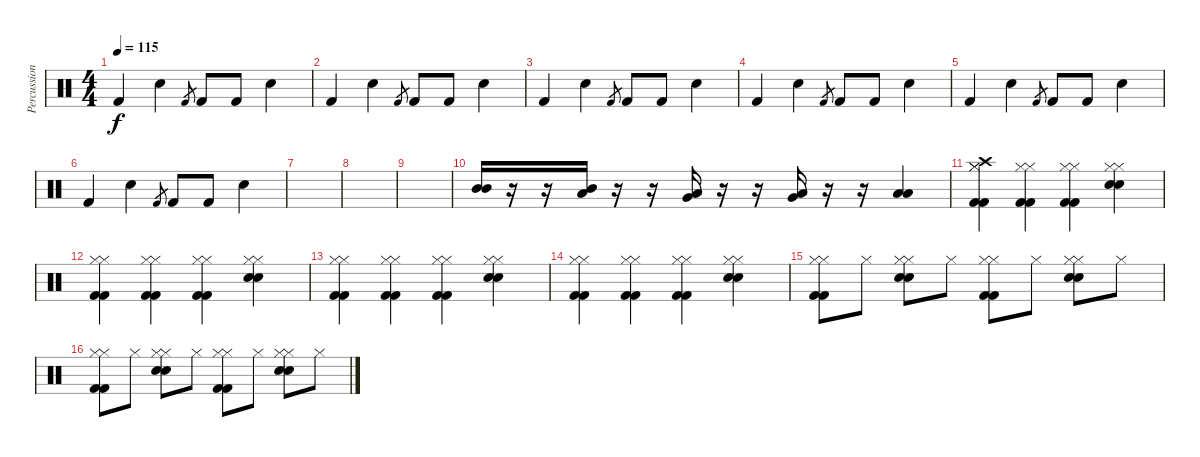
\track ("Percussion" "Percussion") {instrument percussion}
\staff {score}
\articulation defaults
\ts (4 4)
\tempo 115
\clef neutral
\ks c "Kick (hit) 2".4{dy f} "Hand Clap (hit)".4 "Kick (hit) 2".8{gr} "Kick (hit) 2".8 "Kick (hit) 2".8 "Hand Clap (hit)".4
|
"Kick (hit) 2".4 "Hand Clap (hit)".4 "Kick (hit) 2".8{gr} "Kick (hit) 2".8 "Kick (hit) 2".8 "Hand Clap (hit)".4 |
"Kick (hit) 2".4 "Hand Clap (hit)".4 "Kick (hit) 2".8{gr} "Kick (hit) 2".8 "Kick (hit) 2".8 "Hand Clap (hit)".4 |
"Kick (hit) 2".4 "Hand Clap (hit)".4 "Kick (hit) 2".8{gr} "Kick (hit) 2".8 "Kick (hit) 2".8 "Hand Clap (hit)".4 |
"Kick (hit) 2".4 "Hand Clap (hit)".4 "Kick (hit) 2".8{gr} "Kick (hit) 2".8 "Kick (hit) 2".8 "Hand Clap (hit)".4 |
"Kick (hit) 2".4 "Hand Clap (hit)".4 "Kick (hit) 2".8{gr} "Kick (hit) 2".8 "Kick (hit) 2".8 "Hand Clap (hit)".4 |
|
|
|
("Mid Tom (hit)" "Mid Tom (hit)").16 r.16 r.16 ("Mid Tom (hit)" "Low Tom (hit)").16 r.16 r.16 ("Low Tom (hit)" "Very Low Tom (hit)").16 r.16 r.16 ("Very Low Tom (hit)" "Low Floor Tom (hit)").16 r.16 r.16 ("Low Floor Tom (hit)" "Low Floor Tom (hit)").4 |
("Kick (hit) 2" "Kick (hit) 2" "Hi-Hat (closed)" "Hi-Hat (closed)" "Crash high (hit)").4 ("Kick (hit) 2" "Kick (hit) 2" "Hi-Hat (closed)" "Hi-Hat (closed)").4 ("Kick (hit) 2" "Kick (hit) 2" "Hi-Hat (closed)" "Hi-Hat (closed)").4 ("Electric Snare (hit)" "Electric Snare (hit)" "Hi-Hat (closed)" "Hi-Hat (closed)").4 |
("Kick (hit) 2" "Kick (hit) 2" "Hi-Hat (closed)" "Hi-Hat (closed)").4 ("Kick (hit) 2" "Kick (hit) 2" "Hi-Hat (closed)" "Hi-Hat (closed)").4 ("Kick (hit) 2" "Kick (hit) 2" "Hi-Hat (closed)" "Hi-Hat (closed)").4 ("Electric Snare (hit)" "Electric Snare (hit)" "Hi-Hat (closed)" "Hi-Hat (closed)").4 |
("Kick (hit) 2" "Kick (hit) 2" "Hi-Hat (closed)" "Hi-Hat (closed)").4 ("Kick (hit) 2" "Kick (hit) 2" "Hi-Hat (closed)" "Hi-Hat (closed)").4 ("Kick (hit) 2" "Kick (hit) 2" "Hi-Hat (closed)" "Hi-Hat (closed)").4 ("Electric Snare (hit)" "Electric Snare (hit)" "Hi-Hat (closed)" "Hi-Hat (closed)").4 |
("Kick (hit) 2" "Kick (hit) 2" "Hi-Hat (closed)" "Hi-Hat (closed)").4 ("Kick (hit) 2" "Kick (hit) 2" "Hi-Hat (closed)" "Hi-Hat (closed)").4 ("Kick (hit) 2" "Kick (hit) 2" "Hi-Hat (closed)" "Hi-Hat (closed)").4 ("Electric Snare (hit)" "Electric Snare (hit)" "Hi-Hat (closed)" "Hi-Hat (closed)").4 |
("Kick (hit) 2" "Kick (hit) 2" "Hi-Hat (closed)" "Hi-Hat (closed)").8 "Hi-Hat (closed)".8 ("Electric Snare (hit)" "Electric Snare (hit)" "Hi-Hat (closed)" "Hi-Hat (closed)").8 "Hi-Hat (closed)".8 ("Kick (hit) 2" "Kick (hit) 2" "Hi-Hat (closed)" "Hi-Hat (closed)").8 "Hi-Hat (closed)".8 ("Electric Snare (hit)" "Electric Snare (hit)" "Hi-Hat (closed)" "Hi-Hat (closed)").8 "Hi-Hat (closed)".8 |
("Kick (hit) 2" "Kick (hit) 2" "Hi-Hat (closed)" "Hi-Hat (closed)").8 "Hi-Hat (closed)".8 ("Electric Snare (hit)" "Electric Snare (hit)" "Hi-Hat (closed)" "Hi-Hat (closed)").8 "Hi-Hat (closed)".8 ("Kick (hit) 2" "Kick (hit) 2" "Hi-Hat (closed)" "Hi-Hat (closed)").8 "Hi-Hat (closed)".8 ("Electric Snare (hit)" "Electric Snare (hit)" "Hi-Hat (closed)" "Hi-Hat (closed)").8 "Hi-Hat (closed)".8
